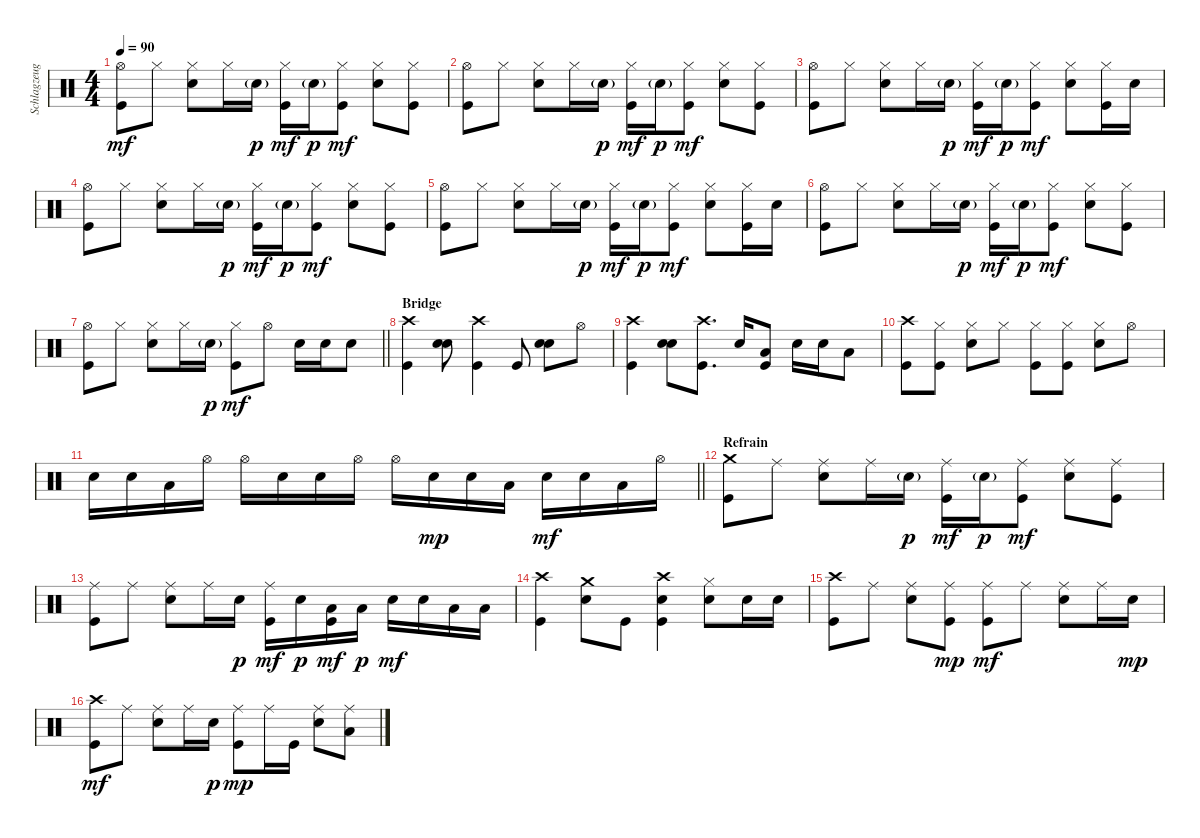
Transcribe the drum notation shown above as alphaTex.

\track ("Schlagzeug" "Schlagzeug") {instrument percussion}
\staff {score}
\articulation defaults
\ts (4 4)
\tempo 90
\clef neutral
\ks c
("Hi-Hat (open)" "Kick (hit)").8{dy mf} "Hi-Hat (closed)".8 ("Hi-Hat (closed)" "Snare (hit) 2").8 "Hi-Hat (closed)".16 "Snare (hit) 2"{g}.16{dy p} ("Hi-Hat (closed)" "Kick (hit)").16{dy mf} "Snare (hit) 2"{g}.16{dy p} ("Hi-Hat (closed)" "Kick (hit)").8{dy mf} ("Hi-Hat (closed)" "Snare (hit) 2").8 ("Hi-Hat (closed)" "Kick (hit)").8 |
("Hi-Hat (open)" "Kick (hit)").8 "Hi-Hat (closed)".8 ("Hi-Hat (closed)" "Snare (hit) 2").8 "Hi-Hat (closed)".16 "Snare (hit) 2"{g}.16{dy p} ("Hi-Hat (closed)" "Kick (hit)").16{dy mf} "Snare (hit) 2"{g}.16{dy p} ("Hi-Hat (closed)" "Kick (hit)").8{dy mf} ("Hi-Hat (closed)" "Snare (hit) 2").8 ("Hi-Hat (closed)" "Kick (hit)").8 |
("Hi-Hat (open)" "Kick (hit)").8 "Hi-Hat (closed)".8 ("Hi-Hat (closed)" "Snare (hit) 2").8 "Hi-Hat (closed)".16 "Snare (hit) 2"{g}.16{dy p} ("Hi-Hat (closed)" "Kick (hit)").16{dy mf} "Snare (hit) 2"{g}.16{dy p} ("Hi-Hat (closed)" "Kick (hit)").8{dy mf} ("Hi-Hat (closed)" "Snare (hit) 2").8 ("Hi-Hat (closed)" "Kick (hit)").16 "Snare (hit) 2".16 |
("Hi-Hat (open)" "Kick (hit)").8 "Hi-Hat (closed)".8 ("Hi-Hat (closed)" "Snare (hit) 2").8 "Hi-Hat (closed)".16 "Snare (hit) 2"{g}.16{dy p} ("Hi-Hat (closed)" "Kick (hit)").16{dy mf} "Snare (hit) 2"{g}.16{dy p} ("Hi-Hat (closed)" "Kick (hit)").8{dy mf} ("Hi-Hat (closed)" "Snare (hit) 2").8 ("Hi-Hat (closed)" "Kick (hit)").8 |
("Hi-Hat (open)" "Kick (hit)").8 "Hi-Hat (closed)".8 ("Hi-Hat (closed)" "Snare (hit) 2").8 "Hi-Hat (closed)".16 "Snare (hit) 2"{g}.16{dy p} ("Hi-Hat (closed)" "Kick (hit)").16{dy mf} "Snare (hit) 2"{g}.16{dy p} ("Hi-Hat (closed)" "Kick (hit)").8{dy mf} ("Hi-Hat (closed)" "Snare (hit) 2").8 ("Hi-Hat (closed)" "Kick (hit)").16 "Snare (hit) 2".16 |
("Hi-Hat (open)" "Kick (hit)").8 "Hi-Hat (closed)".8 ("Hi-Hat (closed)" "Snare (hit) 2").8 "Hi-Hat (closed)".16 "Snare (hit) 2"{g}.16{dy p} ("Hi-Hat (closed)" "Kick (hit)").16{dy mf} "Snare (hit) 2"{g}.16{dy p} ("Hi-Hat (closed)" "Kick (hit)").8{dy mf} ("Hi-Hat (closed)" "Snare (hit) 2").8 ("Hi-Hat (closed)" "Kick (hit)").8 |
\barLineRight lightlight
("Hi-Hat (open)" "Kick (hit)").8 "Hi-Hat (closed)".8 ("Hi-Hat (closed)" "Snare (hit) 2").8 "Hi-Hat (closed)".16 "Snare (hit) 2"{g}.16{dy p} ("Hi-Hat (closed)" "Kick (hit)").8{dy mf} "Hi-Hat (open)".8 "Snare (hit) 2".16 "Snare (hit) 2".16 "Snare (hit) 2".8 |
\section ("" "Bridge")
("Crash high (hit)" "Kick (hit)").4 ("Snare (hit) 2" "Snare (hit) 2").8 ("Crash high (hit)" "Kick (hit)").4 "Kick (hit)".8 ("Snare (hit) 2" "Snare (hit) 2").8 "Hi-Hat (open)".8 |
("Crash high (hit)" "Kick (hit)").4 ("Snare (hit) 2" "Snare (hit) 2").8 ("Crash high (hit)" "Kick (hit)").8{d} "Snare (hit) 2".16 ("Low Tom (hit)" "Kick (hit)").8 "Snare (hit) 2".16 "Snare (hit) 2".16 "Low Tom (hit)".8 |
("Crash high (hit)" "Kick (hit)").8 ("Hi-Hat (closed)" "Kick (hit)").8 ("Hi-Hat (closed)" "Snare (hit) 2").8 "Hi-Hat (closed)".8 ("Hi-Hat (closed)" "Kick (hit)").8 ("Hi-Hat (closed)" "Kick (hit)").8 ("Hi-Hat (closed)" "Snare (hit) 2").8 "Hi-Hat (open)".8 |
\barLineRight lightlight "Snare (hit) 2".16 "Snare (hit) 2".16 "Low Tom (hit)".16 "Hi-Hat (open)".16 "Hi-Hat (open)".16 "Snare (hit) 2".16 "Snare (hit) 2".16 "Hi-Hat (open)".16 "Hi-Hat (open)".16 "Snare (hit) 2".16{dy mp} "Snare (hit) 2".16 "Low Tom (hit)".16 "Snare (hit) 2".16{dy mf} "Snare (hit) 2".16 "Low Tom (hit)".16 "Hi-Hat (open)".16
|
\section ("" "Refrain")
("Crash medium (hit)" "Kick (hit)").8 "Ride (middle)".8 ("Ride (middle)" "Snare (hit) 2").8 "Ride (middle)".16 "Snare (hit) 2"{g}.16{dy p} ("Ride (middle)" "Kick (hit)").16{dy mf} "Snare (hit) 2"{g}.16{dy p} ("Ride (middle)" "Kick (hit)").8{dy mf} ("Ride (middle)" "Snare (hit) 2").8 ("Ride (middle)" "Kick (hit)").8 |
("Ride (middle)" "Kick (hit)").8 "Ride (middle)".8 ("Ride (middle)" "Snare (hit) 2").8 "Ride (middle)".16 "Snare (hit) 2".16{dy p} ("Ride (middle)" "Kick (hit)").16{dy mf} "Snare (hit) 2".16{dy p} ("Low Tom (hit)" "Kick (hit)").16{dy mf} "Low Tom (hit)".16{dy p} "Snare (hit) 2".16{dy mf} "Snare (hit) 2".16 "Low Tom (hit)".16 "Low Tom (hit)".16 |
("Crash high (hit)" "Kick (hit)").4 ("Crash medium (hit)" "Snare (hit) 2").8 "Kick (hit)".8 ("Crash high (hit)" "Snare (hit) 2" "Kick (hit)").4 ("Hi-Hat (closed)" "Snare (hit) 2").8 "Snare (hit) 2".16 "Snare (hit) 2".16 |
("Crash high (hit)" "Kick (hit)").8 "Ride (middle)".8 ("Ride (middle)" "Snare (hit) 2").8 ("Ride (middle)" "Kick (hit)").8{dy mp} ("Ride (middle)" "Kick (hit)").8{dy mf} "Ride (middle)".8 ("Ride (middle)" "Snare (hit) 2").8 "Ride (middle)".16 "Snare (hit) 2".16{dy mp} |
("Crash high (hit)" "Kick (hit)").8{dy mf} "Ride (middle)".8 ("Ride (middle)" "Snare (hit) 2").8 "Ride (middle)".16 "Snare (hit) 2".16{dy p} ("Ride (middle)" "Kick (hit)").8{dy mp} "Ride (middle)".16 "Kick (hit)".16 ("Ride (middle)" "Snare (hit) 2").8 ("Ride (middle)" "Low Tom (hit)").8
